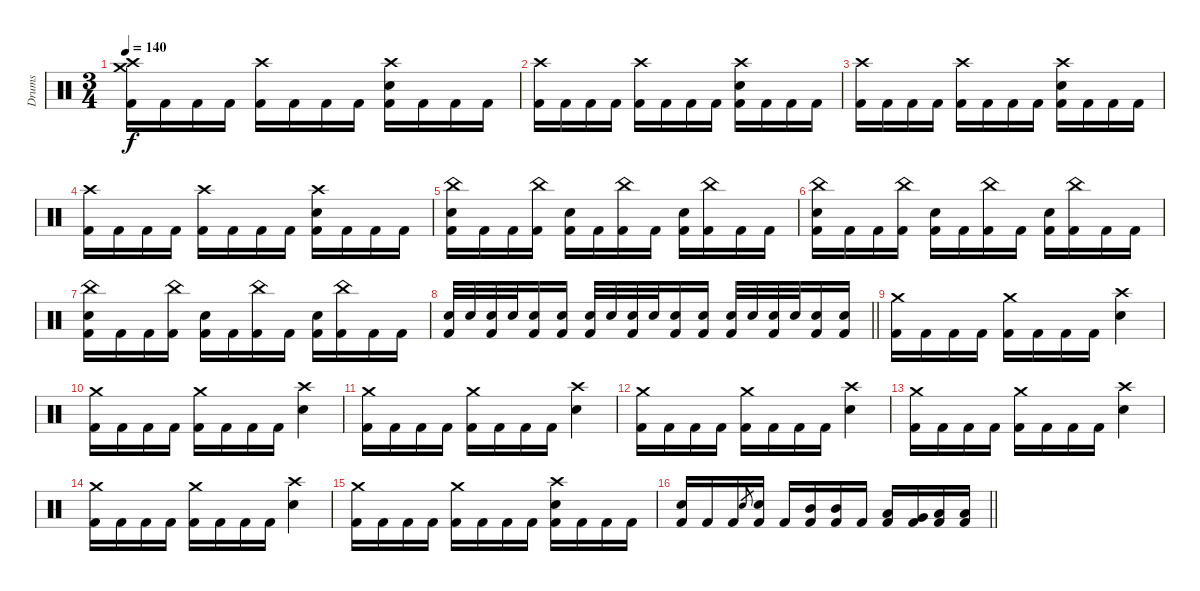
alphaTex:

\track ("Drums" "Drums") {instrument percussion}
\staff {score}
\articulation defaults
\ts (3 4)
\tempo 140
\clef neutral
\ks c
("Crash medium (hit)" "Crash high (hit)" "Kick (hit) 2").16{dy f} "Kick (hit) 2".16 "Kick (hit) 2".16 "Kick (hit) 2".16 ("Crash high (hit)" "Kick (hit) 2").16 "Kick (hit) 2".16 "Kick (hit) 2".16 "Kick (hit) 2".16 ("Crash high (hit)" "Electric Snare (hit)" "Kick (hit) 2").16 "Kick (hit) 2".16 "Kick (hit) 2".16 "Kick (hit) 2".16 |
("Crash high (hit)" "Kick (hit) 2").16 "Kick (hit) 2".16 "Kick (hit) 2".16 "Kick (hit) 2".16 ("Crash high (hit)" "Kick (hit) 2").16 "Kick (hit) 2".16 "Kick (hit) 2".16 "Kick (hit) 2".16 ("Crash high (hit)" "Electric Snare (hit)" "Kick (hit) 2").16 "Kick (hit) 2".16 "Kick (hit) 2".16 "Kick (hit) 2".16 |
("Crash high (hit)" "Kick (hit) 2").16 "Kick (hit) 2".16 "Kick (hit) 2".16 "Kick (hit) 2".16 ("Crash high (hit)" "Kick (hit) 2").16 "Kick (hit) 2".16 "Kick (hit) 2".16 "Kick (hit) 2".16 ("Crash high (hit)" "Electric Snare (hit)" "Kick (hit) 2").16 "Kick (hit) 2".16 "Kick (hit) 2".16 "Kick (hit) 2".16 |
("Crash high (hit)" "Kick (hit) 2").16 "Kick (hit) 2".16 "Kick (hit) 2".16 "Kick (hit) 2".16 ("Crash high (hit)" "Kick (hit) 2").16 "Kick (hit) 2".16 "Kick (hit) 2".16 "Kick (hit) 2".16 ("Crash high (hit)" "Electric Snare (hit)" "Kick (hit) 2").16 "Kick (hit) 2".16 "Kick (hit) 2".16 "Kick (hit) 2".16 |
("China (hit)" "Electric Snare (hit)" "Kick (hit) 2").16 "Kick (hit) 2".16 "Kick (hit) 2".16 ("China (hit)" "Kick (hit) 2").16 ("Electric Snare (hit)" "Kick (hit) 2").16 "Kick (hit) 2".16 ("China (hit)" "Kick (hit) 2").16 "Kick (hit) 2".16 ("Electric Snare (hit)" "Kick (hit) 2").16 ("China (hit)" "Kick (hit) 2").16 "Kick (hit) 2".16 "Kick (hit) 2".16 |
("China (hit)" "Electric Snare (hit)" "Kick (hit) 2").16 "Kick (hit) 2".16 "Kick (hit) 2".16 ("China (hit)" "Kick (hit) 2").16 ("Electric Snare (hit)" "Kick (hit) 2").16 "Kick (hit) 2".16 ("China (hit)" "Kick (hit) 2").16 "Kick (hit) 2".16 ("Electric Snare (hit)" "Kick (hit) 2").16 ("China (hit)" "Kick (hit) 2").16 "Kick (hit) 2".16 "Kick (hit) 2".16 |
("China (hit)" "Electric Snare (hit)" "Kick (hit) 2").16 "Kick (hit) 2".16 "Kick (hit) 2".16 ("China (hit)" "Kick (hit) 2").16 ("Electric Snare (hit)" "Kick (hit) 2").16 "Kick (hit) 2".16 ("China (hit)" "Kick (hit) 2").16 "Kick (hit) 2".16 ("Electric Snare (hit)" "Kick (hit) 2").16 ("China (hit)" "Kick (hit) 2").16 "Kick (hit) 2".16 "Kick (hit) 2".16 |
\barLineRight lightlight
("Electric Snare (hit)" "Kick (hit) 2").32 "Electric Snare (hit)".32 ("Electric Snare (hit)" "Kick (hit) 2").32 "Electric Snare (hit)".32 ("Electric Snare (hit)" "Kick (hit) 2").16 ("Electric Snare (hit)" "Kick (hit) 2").16 ("Electric Snare (hit)" "Kick (hit) 2").32 "Electric Snare (hit)".32 ("Electric Snare (hit)" "Kick (hit) 2").32 "Electric Snare (hit)".32 ("Electric Snare (hit)" "Kick (hit) 2").16 ("Electric Snare (hit)" "Kick (hit) 2").16 ("Electric Snare (hit)" "Kick (hit) 2").32 "Electric Snare (hit)".32 ("Electric Snare (hit)" "Kick (hit) 2").32 "Electric Snare (hit)".32 ("Electric Snare (hit)" "Kick (hit) 2").16 ("Electric Snare (hit)" "Kick (hit) 2").16 |
("Crash medium (hit)" "Kick (hit) 2").16 "Kick (hit) 2".16 "Kick (hit) 2".16 "Kick (hit) 2".16 ("Crash medium (hit)" "Kick (hit) 2").16 "Kick (hit) 2".16 "Kick (hit) 2".16 "Kick (hit) 2".16 ("Crash high (hit)" "Electric Snare (hit)").4 |
("Crash medium (hit)" "Kick (hit) 2").16 "Kick (hit) 2".16 "Kick (hit) 2".16 "Kick (hit) 2".16 ("Crash medium (hit)" "Kick (hit) 2").16 "Kick (hit) 2".16 "Kick (hit) 2".16 "Kick (hit) 2".16 ("Crash high (hit)" "Electric Snare (hit)").4 |
("Crash medium (hit)" "Kick (hit) 2").16 "Kick (hit) 2".16 "Kick (hit) 2".16 "Kick (hit) 2".16 ("Crash medium (hit)" "Kick (hit) 2").16 "Kick (hit) 2".16 "Kick (hit) 2".16 "Kick (hit) 2".16 ("Crash high (hit)" "Electric Snare (hit)").4 |
("Crash medium (hit)" "Kick (hit) 2").16 "Kick (hit) 2".16 "Kick (hit) 2".16 "Kick (hit) 2".16 ("Crash medium (hit)" "Kick (hit) 2").16 "Kick (hit) 2".16 "Kick (hit) 2".16 "Kick (hit) 2".16 ("Crash high (hit)" "Electric Snare (hit)").4 |
("Crash medium (hit)" "Kick (hit) 2").16 "Kick (hit) 2".16 "Kick (hit) 2".16 "Kick (hit) 2".16 ("Crash medium (hit)" "Kick (hit) 2").16 "Kick (hit) 2".16 "Kick (hit) 2".16 "Kick (hit) 2".16 ("Crash high (hit)" "Electric Snare (hit)").4 |
("Crash medium (hit)" "Kick (hit) 2").16 "Kick (hit) 2".16 "Kick (hit) 2".16 "Kick (hit) 2".16 ("Crash medium (hit)" "Kick (hit) 2").16 "Kick (hit) 2".16 "Kick (hit) 2".16 "Kick (hit) 2".16 ("Crash high (hit)" "Electric Snare (hit)").4 |
("Crash medium (hit)" "Kick (hit) 2").16 "Kick (hit) 2".16 "Kick (hit) 2".16 "Kick (hit) 2".16 ("Crash medium (hit)" "Kick (hit) 2").16 "Kick (hit) 2".16 "Kick (hit) 2".16 "Kick (hit) 2".16 ("Crash high (hit)" "Electric Snare (hit)" "Kick (hit) 2").16 "Kick (hit) 2".16 "Kick (hit) 2".16 "Kick (hit) 2".16 |
\barLineRight lightlight
("Electric Snare (hit)" "Kick (hit) 2").16 "Kick (hit) 2".16 "Kick (hit) 2".16 "Electric Snare (hit)".8{gr} ("Electric Snare (hit)" "Kick (hit) 2").16 "Kick (hit) 2".16 ("Mid Tom (hit)" "Kick (hit) 2").16 ("Mid Tom (hit)" "Kick (hit) 2").16 "Kick (hit) 2".16 ("Low Tom (hit)" "Kick (hit) 2").16 ("Very Low Tom (hit)" "Kick (hit) 2").16 ("Low Floor Tom (hit)" "Kick (hit) 2").16 ("Low Floor Tom (hit)" "Kick (hit) 2").16
